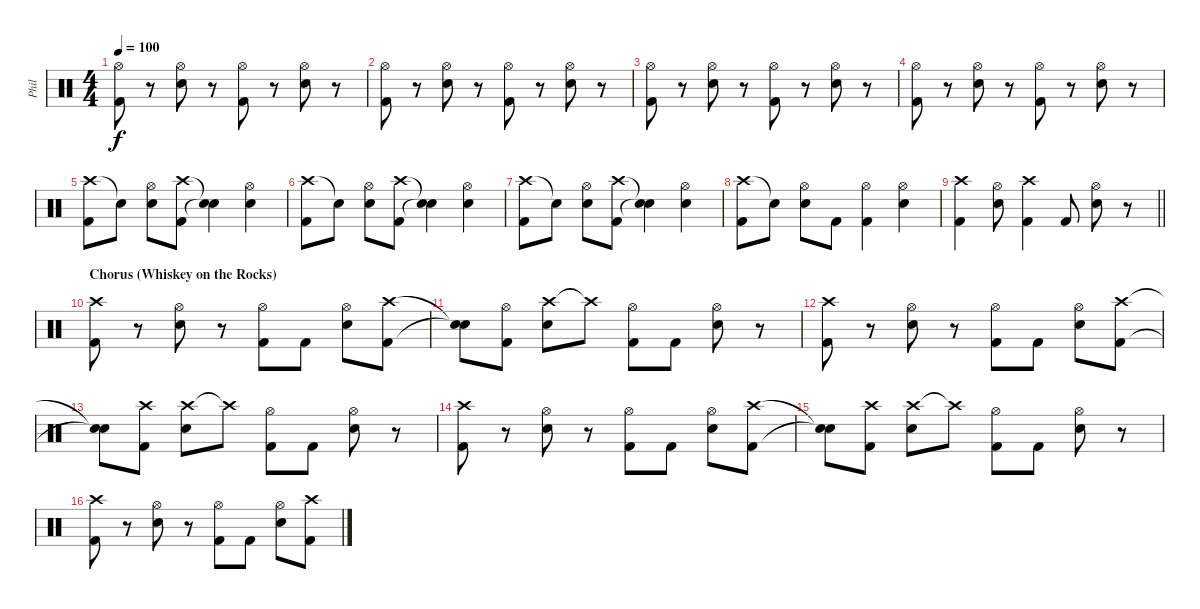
\track ("Phil" "Phil") {instrument percussion}
\staff {score}
\articulation defaults
\ts (4 4)
\tempo 100
\clef neutral
\ks c
("Hi-Hat (open)" "Kick (hit) 2").8{dy f} r.8 ("Hi-Hat (open)" "Electric Snare (hit)").8 r.8 ("Hi-Hat (open)" "Kick (hit) 2").8 r.8 ("Hi-Hat (open)" "Electric Snare (hit)").8 r.8 |
("Hi-Hat (open)" "Kick (hit) 2").8 r.8 ("Hi-Hat (open)" "Electric Snare (hit)").8 r.8 ("Hi-Hat (open)" "Kick (hit) 2").8 r.8 ("Hi-Hat (open)" "Electric Snare (hit)").8 r.8 |
("Hi-Hat (open)" "Kick (hit) 2").8 r.8 ("Hi-Hat (open)" "Electric Snare (hit)").8 r.8 ("Hi-Hat (open)" "Kick (hit) 2").8 r.8 ("Hi-Hat (open)" "Electric Snare (hit)").8 r.8 |
("Hi-Hat (open)" "Kick (hit) 2").8 r.8 ("Hi-Hat (open)" "Electric Snare (hit)").8 r.8 ("Hi-Hat (open)" "Kick (hit) 2").8 r.8 ("Hi-Hat (open)" "Electric Snare (hit)").8 r.8 |
("Crash high (hit)" "Kick (hit) 2").8 "Snare (hit)"{t}.8 ("Hi-Hat (open)" "Electric Snare (hit)").8 ("Crash high (hit)" "Kick (hit) 2").8 ("Snare (hit)"{t} "Snare (hit)"{t}).4 ("Hi-Hat (open)" "Electric Snare (hit)").4 |
("Crash high (hit)" "Kick (hit) 2").8 "Snare (hit)"{t}.8 ("Hi-Hat (open)" "Electric Snare (hit)").8 ("Crash high (hit)" "Kick (hit) 2").8 ("Snare (hit)"{t} "Snare (hit)"{t}).4 ("Hi-Hat (open)" "Electric Snare (hit)").4 |
("Crash high (hit)" "Kick (hit) 2").8 "Snare (hit)"{t}.8 ("Hi-Hat (open)" "Electric Snare (hit)").8 ("Crash high (hit)" "Kick (hit) 2").8 ("Snare (hit)"{t} "Snare (hit)"{t}).4 ("Hi-Hat (open)" "Electric Snare (hit)").4 |
("Crash high (hit)" "Kick (hit) 2").8 "Snare (hit)"{t}.8 ("Hi-Hat (open)" "Electric Snare (hit)").8 "Kick (hit) 2".8 ("Hi-Hat (open)" "Kick (hit) 2").4 ("Hi-Hat (open)" "Electric Snare (hit)").4 |
\barLineRight lightlight
("Crash high (hit)" "Kick (hit) 2").4 ("Hi-Hat (open)" "Electric Snare (hit)").8 ("Crash high (hit)" "Kick (hit) 2").4 "Kick (hit) 2".8 ("Hi-Hat (open)" "Electric Snare (hit)").8 r.8 |
\section ("" "Chorus (Whiskey on the Rocks)")
("Crash high (hit)" "Kick (hit) 2").8 r.8 ("Hi-Hat (open)" "Electric Snare (hit)").8 r.8 ("Hi-Hat (open)" "Kick (hit) 2").8 "Kick (hit) 2".8 ("Hi-Hat (open)" "Electric Snare (hit)").8 ("Crash high (hit)" "Kick (hit) 2").8 |
("Snare (hit)"{t} "Snare (hit)"{t}).8 ("Hi-Hat (open)" "Kick (hit) 2").8 ("Crash high (hit)" "Electric Snare (hit)").8 "Crash high (hit)"{t}.8 ("Hi-Hat (open)" "Kick (hit) 2").8 "Kick (hit) 2".8 ("Hi-Hat (open)" "Electric Snare (hit)").8 r.8 |
("Crash high (hit)" "Kick (hit) 2").8 r.8 ("Hi-Hat (open)" "Electric Snare (hit)").8 r.8 ("Hi-Hat (open)" "Kick (hit) 2").8 "Kick (hit) 2".8 ("Hi-Hat (open)" "Electric Snare (hit)").8 ("Crash high (hit)" "Kick (hit) 2").8 |
("Snare (hit)"{t} "Snare (hit)"{t}).8 ("Crash high (hit)" "Kick (hit) 2").8 ("Crash high (hit)" "Electric Snare (hit)").8 "Crash high (hit)"{t}.8 ("Hi-Hat (open)" "Kick (hit) 2").8 "Kick (hit) 2".8 ("Hi-Hat (open)" "Electric Snare (hit)").8 r.8 |
("Crash high (hit)" "Kick (hit) 2").8 r.8 ("Hi-Hat (open)" "Electric Snare (hit)").8 r.8 ("Hi-Hat (open)" "Kick (hit) 2").8 "Kick (hit) 2".8 ("Hi-Hat (open)" "Electric Snare (hit)").8 ("Crash high (hit)" "Kick (hit) 2").8 |
("Snare (hit)"{t} "Snare (hit)"{t}).8 ("Crash high (hit)" "Kick (hit) 2").8 ("Crash high (hit)" "Electric Snare (hit)").8 "Crash high (hit)"{t}.8 ("Hi-Hat (open)" "Kick (hit) 2").8 "Kick (hit) 2".8 ("Hi-Hat (open)" "Electric Snare (hit)").8 r.8 |
("Crash high (hit)" "Kick (hit) 2").8 r.8 ("Hi-Hat (open)" "Electric Snare (hit)").8 r.8 ("Hi-Hat (open)" "Kick (hit) 2").8 "Kick (hit) 2".8 ("Hi-Hat (open)" "Electric Snare (hit)").8 ("Crash high (hit)" "Kick (hit) 2").8
